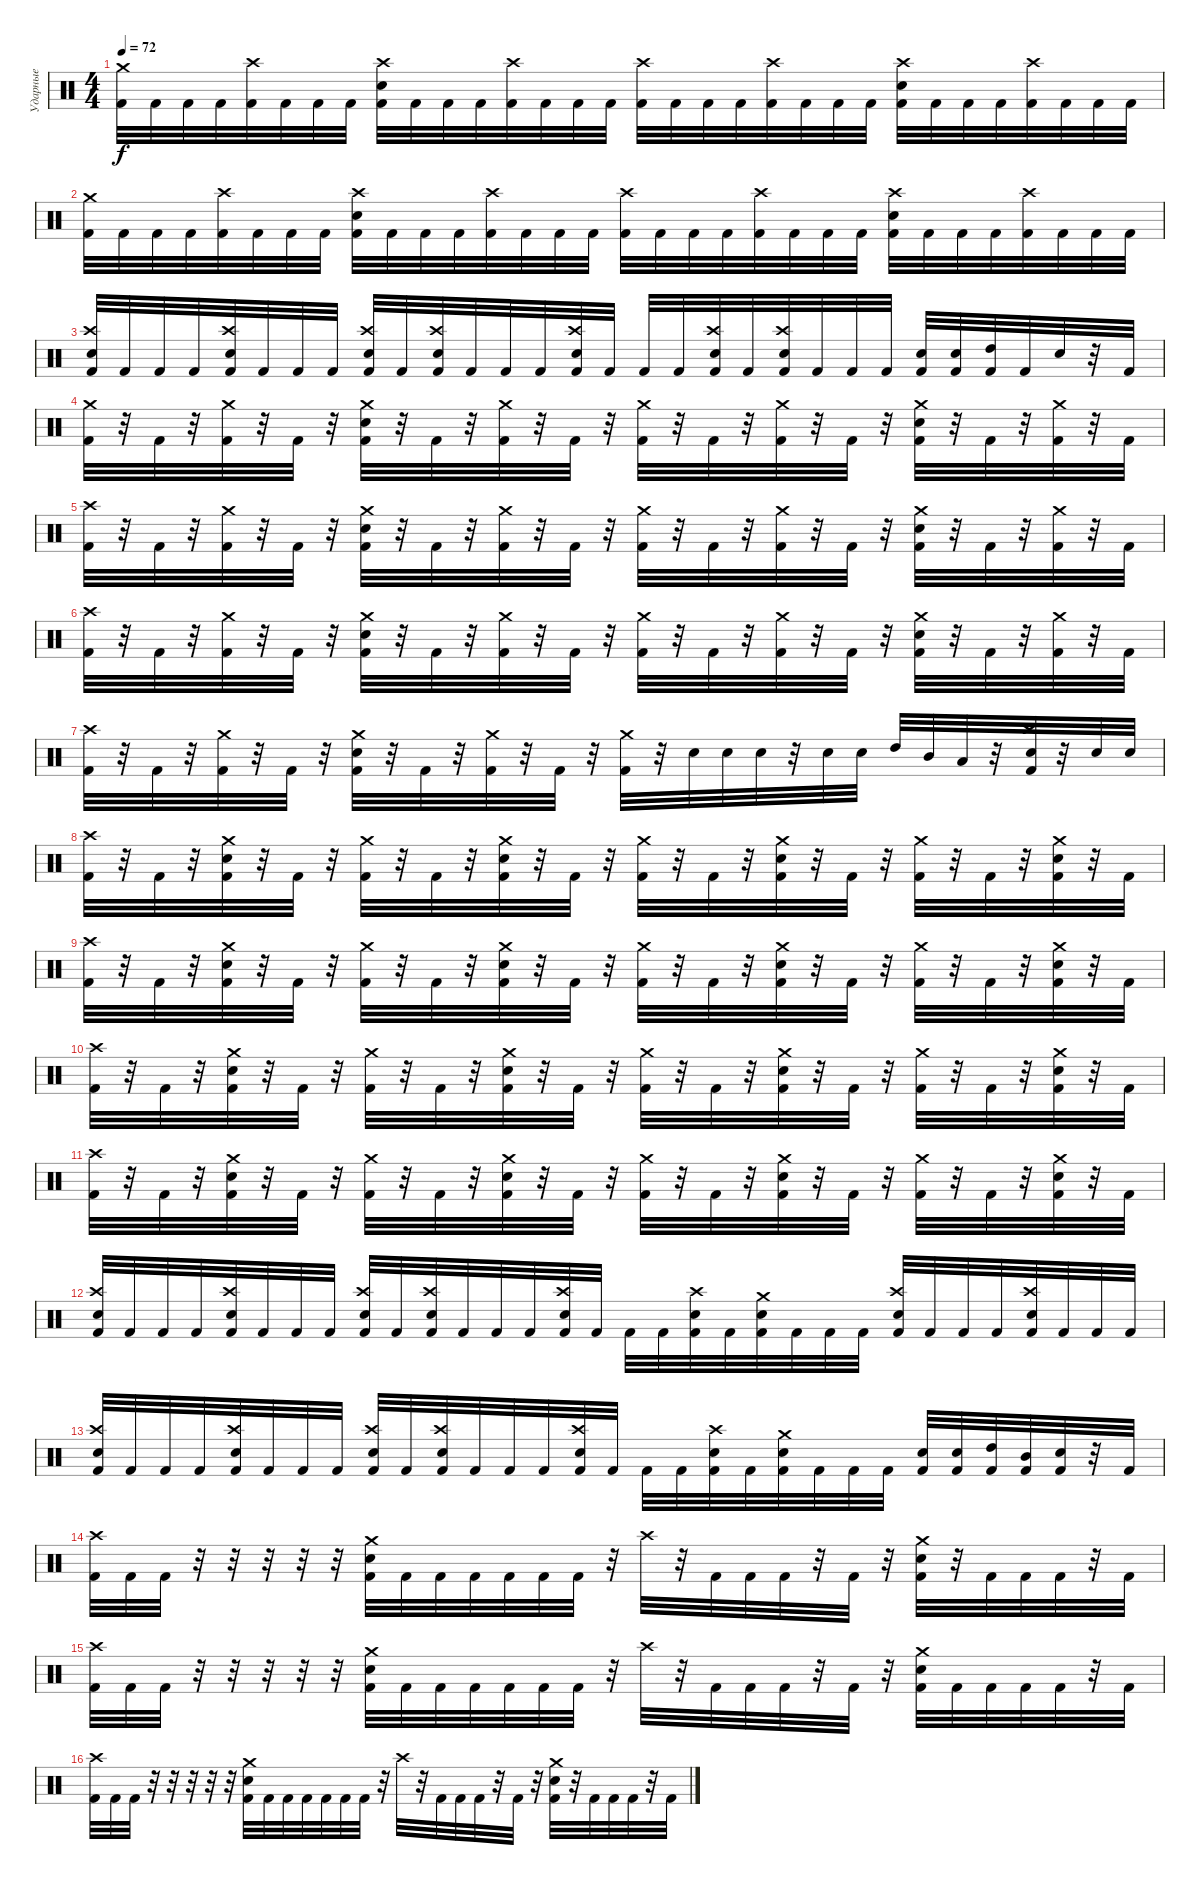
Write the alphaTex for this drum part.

\track ("Ударные" "Ударные") {instrument percussion}
\staff {score}
\articulation defaults
\ts (4 4)
\tempo 72
\clef neutral
\ks c
("Crash medium (hit)" "Kick (hit) 2").32{dy f} "Kick (hit) 2".32 "Kick (hit) 2".32 "Kick (hit) 2".32 ("Crash high (hit)" "Kick (hit) 2").32 "Kick (hit) 2".32 "Kick (hit) 2".32 "Kick (hit) 2".32 ("Crash high (hit)" "Kick (hit) 2" "Electric Snare (hit)").32 "Kick (hit) 2".32 "Kick (hit) 2".32 "Kick (hit) 2".32 ("Crash high (hit)" "Kick (hit) 2").32 "Kick (hit) 2".32 "Kick (hit) 2".32 "Kick (hit) 2".32 ("Crash high (hit)" "Kick (hit) 2").32 "Kick (hit) 2".32 "Kick (hit) 2".32 "Kick (hit) 2".32 ("Crash high (hit)" "Kick (hit) 2").32 "Kick (hit) 2".32 "Kick (hit) 2".32 "Kick (hit) 2".32 ("Crash high (hit)" "Kick (hit) 2" "Electric Snare (hit)").32 "Kick (hit) 2".32 "Kick (hit) 2".32 "Kick (hit) 2".32 ("Crash high (hit)" "Kick (hit) 2").32 "Kick (hit) 2".32 "Kick (hit) 2".32 "Kick (hit) 2".32 |
("Crash medium (hit)" "Kick (hit) 2").32 "Kick (hit) 2".32 "Kick (hit) 2".32 "Kick (hit) 2".32 ("Crash high (hit)" "Kick (hit) 2").32 "Kick (hit) 2".32 "Kick (hit) 2".32 "Kick (hit) 2".32 ("Crash high (hit)" "Kick (hit) 2" "Electric Snare (hit)").32 "Kick (hit) 2".32 "Kick (hit) 2".32 "Kick (hit) 2".32 ("Crash high (hit)" "Kick (hit) 2").32 "Kick (hit) 2".32 "Kick (hit) 2".32 "Kick (hit) 2".32 ("Crash high (hit)" "Kick (hit) 2").32 "Kick (hit) 2".32 "Kick (hit) 2".32 "Kick (hit) 2".32 ("Crash high (hit)" "Kick (hit) 2").32 "Kick (hit) 2".32 "Kick (hit) 2".32 "Kick (hit) 2".32 ("Crash high (hit)" "Kick (hit) 2" "Electric Snare (hit)").32 "Kick (hit) 2".32 "Kick (hit) 2".32 "Kick (hit) 2".32 ("Crash high (hit)" "Kick (hit) 2").32 "Kick (hit) 2".32 "Kick (hit) 2".32 "Kick (hit) 2".32 |
("Crash high (hit)" "Kick (hit) 2" "Electric Snare (hit)").32 "Kick (hit) 2".32 "Kick (hit) 2".32 "Kick (hit) 2".32 ("Crash high (hit)" "Kick (hit) 2" "Electric Snare (hit)").32 "Kick (hit) 2".32 "Kick (hit) 2".32 "Kick (hit) 2".32 ("Crash high (hit)" "Kick (hit) 2" "Electric Snare (hit)").32 "Kick (hit) 2".32 ("Crash high (hit)" "Kick (hit) 2" "Electric Snare (hit)").32 "Kick (hit) 2".32 "Kick (hit) 2".32 "Kick (hit) 2".32 ("Crash high (hit)" "Kick (hit) 2" "Electric Snare (hit)").32 "Kick (hit) 2".32 "Kick (hit) 2".32 "Kick (hit) 2".32 ("Crash high (hit)" "Kick (hit) 2" "Electric Snare (hit)").32 "Kick (hit) 2".32 ("Crash high (hit)" "Kick (hit) 2" "Electric Snare (hit)").32 "Kick (hit) 2".32 "Kick (hit) 2".32 "Kick (hit) 2".32 ("Kick (hit) 2" "Electric Snare (hit)").32 ("Kick (hit) 2" "Electric Snare (hit)").32 ("Kick (hit) 2" "High Tom (hit)").32 "Kick (hit) 2".32 "Electric Snare (hit)".32 r.32 "Kick (hit) 2".32 |
("Crash medium (hit)" "Kick (hit) 2").32 r.32 "Kick (hit) 2".32 r.32 ("Crash medium (hit)" "Kick (hit) 2").32 r.32 "Kick (hit) 2".32 r.32 ("Crash medium (hit)" "Kick (hit) 2" "Electric Snare (hit)").32 r.32 "Kick (hit) 2".32 r.32 ("Crash medium (hit)" "Kick (hit) 2").32 r.32 "Kick (hit) 2".32 r.32 ("Crash medium (hit)" "Kick (hit) 2").32 r.32 "Kick (hit) 2".32 r.32 ("Crash medium (hit)" "Kick (hit) 2").32 r.32 "Kick (hit) 2".32 r.32 ("Crash medium (hit)" "Kick (hit) 2" "Electric Snare (hit)").32 r.32 "Kick (hit) 2".32 r.32 ("Crash medium (hit)" "Kick (hit) 2").32 r.32 "Kick (hit) 2".32 |
("Crash high (hit)" "Kick (hit) 2").32 r.32 "Kick (hit) 2".32 r.32 ("Crash medium (hit)" "Kick (hit) 2").32 r.32 "Kick (hit) 2".32 r.32 ("Crash medium (hit)" "Kick (hit) 2" "Electric Snare (hit)").32 r.32 "Kick (hit) 2".32 r.32 ("Crash medium (hit)" "Kick (hit) 2").32 r.32 "Kick (hit) 2".32 r.32 ("Crash medium (hit)" "Kick (hit) 2").32 r.32 "Kick (hit) 2".32 r.32 ("Crash medium (hit)" "Kick (hit) 2").32 r.32 "Kick (hit) 2".32 r.32 ("Crash medium (hit)" "Kick (hit) 2" "Electric Snare (hit)").32 r.32 "Kick (hit) 2".32 r.32 ("Crash medium (hit)" "Kick (hit) 2").32 r.32 "Kick (hit) 2".32 |
("Crash high (hit)" "Kick (hit) 2").32 r.32 "Kick (hit) 2".32 r.32 ("Crash medium (hit)" "Kick (hit) 2").32 r.32 "Kick (hit) 2".32 r.32 ("Crash medium (hit)" "Kick (hit) 2" "Electric Snare (hit)").32 r.32 "Kick (hit) 2".32 r.32 ("Crash medium (hit)" "Kick (hit) 2").32 r.32 "Kick (hit) 2".32 r.32 ("Crash medium (hit)" "Kick (hit) 2").32 r.32 "Kick (hit) 2".32 r.32 ("Crash medium (hit)" "Kick (hit) 2").32 r.32 "Kick (hit) 2".32 r.32 ("Crash medium (hit)" "Kick (hit) 2" "Electric Snare (hit)").32 r.32 "Kick (hit) 2".32 r.32 ("Crash medium (hit)" "Kick (hit) 2").32 r.32 "Kick (hit) 2".32 |
("Crash high (hit)" "Kick (hit) 2").32 r.32 "Kick (hit) 2".32 r.32 ("Crash medium (hit)" "Kick (hit) 2").32 r.32 "Kick (hit) 2".32 r.32 ("Crash medium (hit)" "Kick (hit) 2" "Electric Snare (hit)").32 r.32 "Kick (hit) 2".32 r.32 ("Crash medium (hit)" "Kick (hit) 2").32 r.32 "Kick (hit) 2".32 r.32 ("Crash medium (hit)" "Kick (hit) 2").32 r.32 "Electric Snare (hit)".32 "Electric Snare (hit)".32 "Electric Snare (hit)".32 r.32 "Electric Snare (hit)".32 "Electric Snare (hit)".32 "High Tom (hit)".32 "Mid Tom (hit)".32 "Low Tom (hit)".32 r.32 ("Crash high (hit)" "Kick (hit) 2" "Electric Snare (hit)").32 r.32 "Electric Snare (hit)".32 "Electric Snare (hit)".32 |
("Crash high (hit)" "Kick (hit) 2").32 r.32 "Kick (hit) 2".32 r.32 ("Crash medium (hit)" "Kick (hit) 2" "Electric Snare (hit)").32 r.32 "Kick (hit) 2".32 r.32 ("Crash medium (hit)" "Kick (hit) 2").32 r.32 "Kick (hit) 2".32 r.32 ("Crash medium (hit)" "Kick (hit) 2" "Electric Snare (hit)").32 r.32 "Kick (hit) 2".32 r.32 ("Crash medium (hit)" "Kick (hit) 2").32 r.32 "Kick (hit) 2".32 r.32 ("Crash medium (hit)" "Kick (hit) 2" "Electric Snare (hit)").32 r.32 "Kick (hit) 2".32 r.32 ("Crash medium (hit)" "Kick (hit) 2").32 r.32 "Kick (hit) 2".32 r.32 ("Crash medium (hit)" "Kick (hit) 2" "Electric Snare (hit)").32 r.32 "Kick (hit) 2".32 |
("Crash high (hit)" "Kick (hit) 2").32 r.32 "Kick (hit) 2".32 r.32 ("Crash medium (hit)" "Kick (hit) 2" "Electric Snare (hit)").32 r.32 "Kick (hit) 2".32 r.32 ("Crash medium (hit)" "Kick (hit) 2").32 r.32 "Kick (hit) 2".32 r.32 ("Crash medium (hit)" "Kick (hit) 2" "Electric Snare (hit)").32 r.32 "Kick (hit) 2".32 r.32 ("Crash medium (hit)" "Kick (hit) 2").32 r.32 "Kick (hit) 2".32 r.32 ("Crash medium (hit)" "Kick (hit) 2" "Electric Snare (hit)").32 r.32 "Kick (hit) 2".32 r.32 ("Crash medium (hit)" "Kick (hit) 2").32 r.32 "Kick (hit) 2".32 r.32 ("Crash medium (hit)" "Kick (hit) 2" "Electric Snare (hit)").32 r.32 "Kick (hit) 2".32 |
("Crash high (hit)" "Kick (hit) 2").32 r.32 "Kick (hit) 2".32 r.32 ("Crash medium (hit)" "Kick (hit) 2" "Electric Snare (hit)").32 r.32 "Kick (hit) 2".32 r.32 ("Crash medium (hit)" "Kick (hit) 2").32 r.32 "Kick (hit) 2".32 r.32 ("Crash medium (hit)" "Kick (hit) 2" "Electric Snare (hit)").32 r.32 "Kick (hit) 2".32 r.32 ("Crash medium (hit)" "Kick (hit) 2").32 r.32 "Kick (hit) 2".32 r.32 ("Crash medium (hit)" "Kick (hit) 2" "Electric Snare (hit)").32 r.32 "Kick (hit) 2".32 r.32 ("Crash medium (hit)" "Kick (hit) 2").32 r.32 "Kick (hit) 2".32 r.32 ("Crash medium (hit)" "Kick (hit) 2" "Electric Snare (hit)").32 r.32 "Kick (hit) 2".32 |
("Crash high (hit)" "Kick (hit) 2").32 r.32 "Kick (hit) 2".32 r.32 ("Crash medium (hit)" "Kick (hit) 2" "Electric Snare (hit)").32 r.32 "Kick (hit) 2".32 r.32 ("Crash medium (hit)" "Kick (hit) 2").32 r.32 "Kick (hit) 2".32 r.32 ("Crash medium (hit)" "Kick (hit) 2" "Electric Snare (hit)").32 r.32 "Kick (hit) 2".32 r.32 ("Crash medium (hit)" "Kick (hit) 2").32 r.32 "Kick (hit) 2".32 r.32 ("Crash medium (hit)" "Kick (hit) 2" "Electric Snare (hit)").32 r.32 "Kick (hit) 2".32 r.32 ("Crash medium (hit)" "Kick (hit) 2").32 r.32 "Kick (hit) 2".32 r.32 ("Crash medium (hit)" "Kick (hit) 2" "Electric Snare (hit)").32 r.32 "Kick (hit) 2".32 |
("Crash high (hit)" "Electric Snare (hit)" "Kick (hit) 2").32 "Kick (hit) 2".32 "Kick (hit) 2".32 "Kick (hit) 2".32 ("Crash high (hit)" "Electric Snare (hit)" "Kick (hit) 2").32 "Kick (hit) 2".32 "Kick (hit) 2".32 "Kick (hit) 2".32 ("Crash high (hit)" "Electric Snare (hit)" "Kick (hit) 2").32 "Kick (hit) 2".32 ("Crash high (hit)" "Electric Snare (hit)" "Kick (hit) 2").32 "Kick (hit) 2".32 "Kick (hit) 2".32 "Kick (hit) 2".32 ("Crash high (hit)" "Electric Snare (hit)" "Kick (hit) 2").32 "Kick (hit) 2".32 "Kick (hit) 2".32 "Kick (hit) 2".32 ("Crash high (hit)" "Electric Snare (hit)" "Kick (hit) 2").32 "Kick (hit) 2".32 ("Crash medium (hit)" "Electric Snare (hit)" "Kick (hit) 2").32 "Kick (hit) 2".32 "Kick (hit) 2".32 "Kick (hit) 2".32 ("Crash high (hit)" "Electric Snare (hit)" "Kick (hit) 2").32 "Kick (hit) 2".32 "Kick (hit) 2".32 "Kick (hit) 2".32 ("Crash high (hit)" "Electric Snare (hit)" "Kick (hit) 2").32 "Kick (hit) 2".32 "Kick (hit) 2".32 "Kick (hit) 2".32 |
("Crash high (hit)" "Electric Snare (hit)" "Kick (hit) 2").32 "Kick (hit) 2".32 "Kick (hit) 2".32 "Kick (hit) 2".32 ("Crash high (hit)" "Electric Snare (hit)" "Kick (hit) 2").32 "Kick (hit) 2".32 "Kick (hit) 2".32 "Kick (hit) 2".32 ("Crash high (hit)" "Electric Snare (hit)" "Kick (hit) 2").32 "Kick (hit) 2".32 ("Crash high (hit)" "Electric Snare (hit)" "Kick (hit) 2").32 "Kick (hit) 2".32 "Kick (hit) 2".32 "Kick (hit) 2".32 ("Crash high (hit)" "Electric Snare (hit)" "Kick (hit) 2").32 "Kick (hit) 2".32 "Kick (hit) 2".32 "Kick (hit) 2".32 ("Crash high (hit)" "Electric Snare (hit)" "Kick (hit) 2").32 "Kick (hit) 2".32 ("Crash medium (hit)" "Electric Snare (hit)" "Kick (hit) 2").32 "Kick (hit) 2".32 "Kick (hit) 2".32 "Kick (hit) 2".32 ("Electric Snare (hit)" "Kick (hit) 2").32 ("Electric Snare (hit)" "Kick (hit) 2").32 ("High Tom (hit)" "Kick (hit) 2").32 ("Mid Tom (hit)" "Kick (hit) 2").32 ("Electric Snare (hit)" "Kick (hit) 2").32 r.32 "Kick (hit) 2".32 |
("Crash high (hit)" "Kick (hit) 2").32 "Kick (hit) 2".32 "Kick (hit) 2".32 r.32 r.32 r.32 r.32 r.32 ("Crash medium (hit)" "Kick (hit) 2" "Electric Snare (hit)").32 "Kick (hit) 2".32 "Kick (hit) 2".32 "Kick (hit) 2".32 "Kick (hit) 2".32 "Kick (hit) 2".32 "Kick (hit) 2".32 r.32 "Crash high (hit)".32 r.32 "Kick (hit) 2".32 "Kick (hit) 2".32 "Kick (hit) 2".32 r.32 "Kick (hit) 2".32 r.32 ("Crash medium (hit)" "Kick (hit) 2" "Electric Snare (hit)").32 r.32 "Kick (hit) 2".32 "Kick (hit) 2".32 "Kick (hit) 2".32 r.32 "Kick (hit) 2".32 |
("Crash high (hit)" "Kick (hit) 2").32 "Kick (hit) 2".32 "Kick (hit) 2".32 r.32 r.32 r.32 r.32 r.32 ("Crash medium (hit)" "Kick (hit) 2" "Electric Snare (hit)").32 "Kick (hit) 2".32 "Kick (hit) 2".32 "Kick (hit) 2".32 "Kick (hit) 2".32 "Kick (hit) 2".32 "Kick (hit) 2".32 r.32 "Crash high (hit)".32 r.32 "Kick (hit) 2".32 "Kick (hit) 2".32 "Kick (hit) 2".32 r.32 "Kick (hit) 2".32 r.32 ("Crash medium (hit)" "Kick (hit) 2" "Electric Snare (hit)").32 "Kick (hit) 2".32 "Kick (hit) 2".32 "Kick (hit) 2".32 "Kick (hit) 2".32 r.32 "Kick (hit) 2".32 |
("Crash high (hit)" "Kick (hit) 2").32 "Kick (hit) 2".32 "Kick (hit) 2".32 r.32 r.32 r.32 r.32 r.32 ("Crash medium (hit)" "Kick (hit) 2" "Electric Snare (hit)").32 "Kick (hit) 2".32 "Kick (hit) 2".32 "Kick (hit) 2".32 "Kick (hit) 2".32 "Kick (hit) 2".32 "Kick (hit) 2".32 r.32 "Crash high (hit)".32 r.32 "Kick (hit) 2".32 "Kick (hit) 2".32 "Kick (hit) 2".32 r.32 "Kick (hit) 2".32 r.32 ("Crash medium (hit)" "Kick (hit) 2" "Electric Snare (hit)").32 r.32 "Kick (hit) 2".32 "Kick (hit) 2".32 "Kick (hit) 2".32 r.32 "Kick (hit) 2".32
